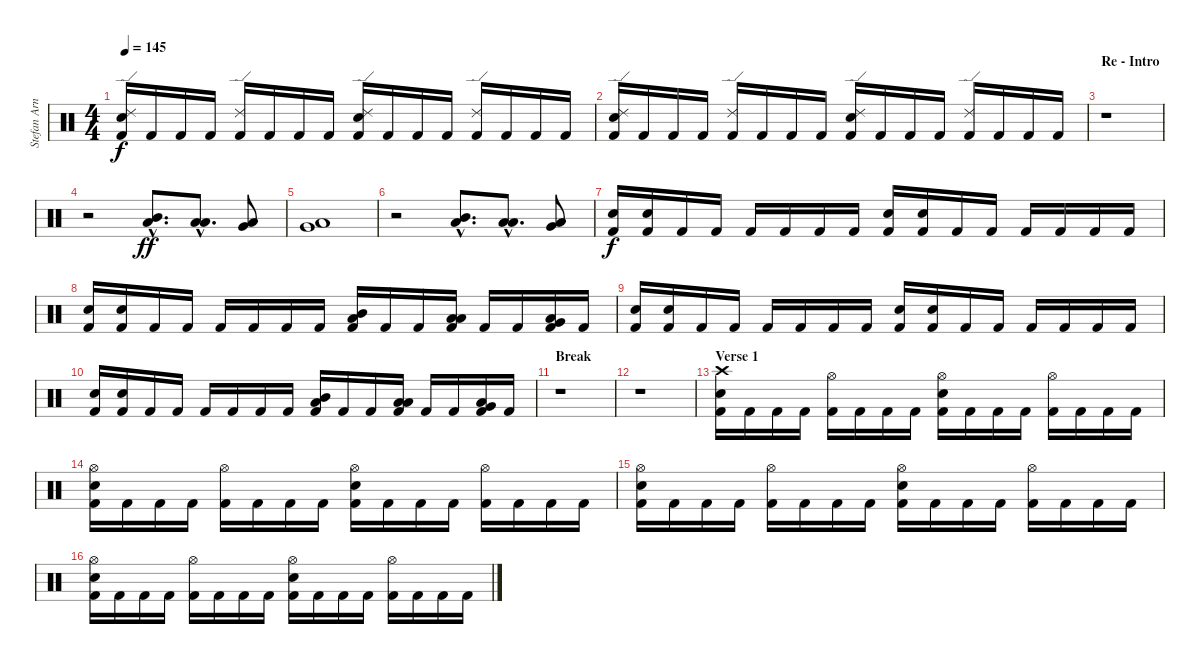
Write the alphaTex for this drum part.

\track ("Stefan Arnold" "Stefan Arn") {instrument percussion}
\staff {score}
\articulation defaults
\ts (4 4)
\tempo 145
\clef neutral
\ks c
("Ride (edge) 2" "Electric Snare (hit)" "Kick (hit) 2").16{dy f} "Kick (hit) 2".16 "Kick (hit) 2".16 "Kick (hit) 2".16 ("Ride (edge) 2" "Kick (hit) 2").16 "Kick (hit) 2".16 "Kick (hit) 2".16 "Kick (hit) 2".16 ("Ride (edge) 2" "Electric Snare (hit)" "Kick (hit) 2").16 "Kick (hit) 2".16 "Kick (hit) 2".16 "Kick (hit) 2".16 ("Ride (edge) 2" "Kick (hit) 2").16 "Kick (hit) 2".16 "Kick (hit) 2".16 "Kick (hit) 2".16 |
("Ride (edge) 2" "Electric Snare (hit)" "Kick (hit) 2").16 "Kick (hit) 2".16 "Kick (hit) 2".16 "Kick (hit) 2".16 ("Ride (edge) 2" "Kick (hit) 2").16 "Kick (hit) 2".16 "Kick (hit) 2".16 "Kick (hit) 2".16 ("Ride (edge) 2" "Electric Snare (hit)" "Kick (hit) 2").16 "Kick (hit) 2".16 "Kick (hit) 2".16 "Kick (hit) 2".16 ("Ride (edge) 2" "Kick (hit) 2").16 "Kick (hit) 2".16 "Kick (hit) 2".16 "Kick (hit) 2".16 |
\section ("" "Re - Intro")
r.1 |
r.2 ("Mid Tom (hit)"{hac} "Low Floor Tom (hit)"{hac}).8{d dy ff} ("Low Tom (hit)"{hac} "Low Floor Tom (hit)"{hac}).8{d} ("Very Low Tom (hit)" "Low Floor Tom (hit)").8 |
("Very Low Tom (hit)" "Low Floor Tom (hit)").1 |
r.2 ("Mid Tom (hit)"{hac} "Low Floor Tom (hit)"{hac}).8{d} ("Low Tom (hit)"{hac} "Low Floor Tom (hit)"{hac}).8{d} ("Very Low Tom (hit)" "Low Floor Tom (hit)").8 |
("Electric Snare (hit)" "Kick (hit) 2").16{dy f} ("Electric Snare (hit)" "Kick (hit) 2").16 "Kick (hit) 2".16 "Kick (hit) 2".16 "Kick (hit) 2".16 "Kick (hit) 2".16 "Kick (hit) 2".16 "Kick (hit) 2".16 ("Electric Snare (hit)" "Kick (hit) 2").16 ("Electric Snare (hit)" "Kick (hit) 2").16 "Kick (hit) 2".16 "Kick (hit) 2".16 "Kick (hit) 2".16 "Kick (hit) 2".16 "Kick (hit) 2".16 "Kick (hit) 2".16 |
("Electric Snare (hit)" "Kick (hit) 2").16 ("Electric Snare (hit)" "Kick (hit) 2").16 "Kick (hit) 2".16 "Kick (hit) 2".16 "Kick (hit) 2".16 "Kick (hit) 2".16 "Kick (hit) 2".16 "Kick (hit) 2".16 ("Mid Tom (hit)" "Low Floor Tom (hit)" "Kick (hit) 2").16 "Kick (hit) 2".16 "Kick (hit) 2".16 ("Low Tom (hit)" "Low Floor Tom (hit)" "Kick (hit) 2").16 "Kick (hit) 2".16 "Kick (hit) 2".16 ("Very Low Tom (hit)" "Low Floor Tom (hit)" "Kick (hit) 2").16 "Kick (hit) 2".16 |
("Electric Snare (hit)" "Kick (hit) 2").16 ("Electric Snare (hit)" "Kick (hit) 2").16 "Kick (hit) 2".16 "Kick (hit) 2".16 "Kick (hit) 2".16 "Kick (hit) 2".16 "Kick (hit) 2".16 "Kick (hit) 2".16 ("Electric Snare (hit)" "Kick (hit) 2").16 ("Electric Snare (hit)" "Kick (hit) 2").16 "Kick (hit) 2".16 "Kick (hit) 2".16 "Kick (hit) 2".16 "Kick (hit) 2".16 "Kick (hit) 2".16 "Kick (hit) 2".16 |
("Electric Snare (hit)" "Kick (hit) 2").16 ("Electric Snare (hit)" "Kick (hit) 2").16 "Kick (hit) 2".16 "Kick (hit) 2".16 "Kick (hit) 2".16 "Kick (hit) 2".16 "Kick (hit) 2".16 "Kick (hit) 2".16 ("Mid Tom (hit)" "Low Floor Tom (hit)" "Kick (hit) 2").16 "Kick (hit) 2".16 "Kick (hit) 2".16 ("Low Tom (hit)" "Low Floor Tom (hit)" "Kick (hit) 2").16 "Kick (hit) 2".16 "Kick (hit) 2".16 ("Very Low Tom (hit)" "Low Floor Tom (hit)" "Kick (hit) 2").16 "Kick (hit) 2".16 |
\section ("" "Break")
r.1 |
r.1 |
\section ("" "Verse 1")
("Crash high (hit)" "Electric Snare (hit)" "Kick (hit) 2").16 "Kick (hit) 2".16 "Kick (hit) 2".16 "Kick (hit) 2".16 ("Hi-Hat (open)" "Kick (hit) 2").16 "Kick (hit) 2".16 "Kick (hit) 2".16 "Kick (hit) 2".16 ("Hi-Hat (open)" "Electric Snare (hit)" "Kick (hit) 2").16 "Kick (hit) 2".16 "Kick (hit) 2".16 "Kick (hit) 2".16 ("Hi-Hat (open)" "Kick (hit) 2").16 "Kick (hit) 2".16 "Kick (hit) 2".16 "Kick (hit) 2".16 |
("Hi-Hat (open)" "Electric Snare (hit)" "Kick (hit) 2").16 "Kick (hit) 2".16 "Kick (hit) 2".16 "Kick (hit) 2".16 ("Hi-Hat (open)" "Kick (hit) 2").16 "Kick (hit) 2".16 "Kick (hit) 2".16 "Kick (hit) 2".16 ("Hi-Hat (open)" "Electric Snare (hit)" "Kick (hit) 2").16 "Kick (hit) 2".16 "Kick (hit) 2".16 "Kick (hit) 2".16 ("Hi-Hat (open)" "Kick (hit) 2").16 "Kick (hit) 2".16 "Kick (hit) 2".16 "Kick (hit) 2".16 |
("Hi-Hat (open)" "Electric Snare (hit)" "Kick (hit) 2").16 "Kick (hit) 2".16 "Kick (hit) 2".16 "Kick (hit) 2".16 ("Hi-Hat (open)" "Kick (hit) 2").16 "Kick (hit) 2".16 "Kick (hit) 2".16 "Kick (hit) 2".16 ("Hi-Hat (open)" "Electric Snare (hit)" "Kick (hit) 2").16 "Kick (hit) 2".16 "Kick (hit) 2".16 "Kick (hit) 2".16 ("Hi-Hat (open)" "Kick (hit) 2").16 "Kick (hit) 2".16 "Kick (hit) 2".16 "Kick (hit) 2".16 |
("Hi-Hat (open)" "Electric Snare (hit)" "Kick (hit) 2").16 "Kick (hit) 2".16 "Kick (hit) 2".16 "Kick (hit) 2".16 ("Hi-Hat (open)" "Kick (hit) 2").16 "Kick (hit) 2".16 "Kick (hit) 2".16 "Kick (hit) 2".16 ("Hi-Hat (open)" "Electric Snare (hit)" "Kick (hit) 2").16 "Kick (hit) 2".16 "Kick (hit) 2".16 "Kick (hit) 2".16 ("Hi-Hat (open)" "Kick (hit) 2").16 "Kick (hit) 2".16 "Kick (hit) 2".16 "Kick (hit) 2".16
